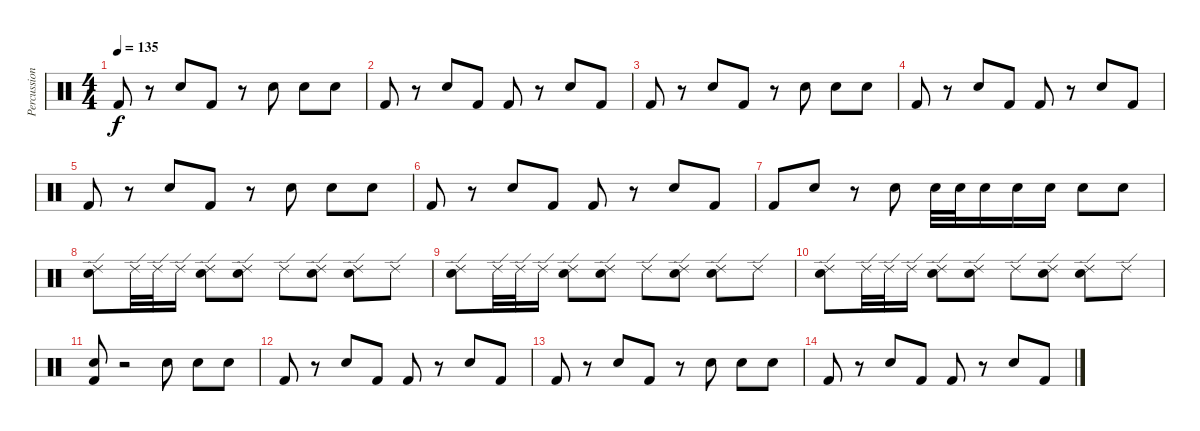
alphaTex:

\track ("Percussions" "Percussion") {instrument percussion}
\staff {score}
\articulation defaults
\ts (4 4)
\tempo 135
\clef neutral
\ks c "Kick (hit) 2".8{dy f}
r.8 "Snare (hit) 2".8 "Kick (hit) 2".8 r.8 "Snare (hit) 2".8 "Snare (hit) 2".8 "Snare (hit) 2".8 |
"Kick (hit) 2".8 r.8 "Snare (hit) 2".8 "Kick (hit) 2".8 "Kick (hit) 2".8 r.8 "Snare (hit) 2".8 "Kick (hit) 2".8 |
"Kick (hit) 2".8 r.8 "Snare (hit) 2".8 "Kick (hit) 2".8 r.8 "Snare (hit) 2".8 "Snare (hit) 2".8 "Snare (hit) 2".8 |
"Kick (hit) 2".8 r.8 "Snare (hit) 2".8 "Kick (hit) 2".8 "Kick (hit) 2".8 r.8 "Snare (hit) 2".8 "Kick (hit) 2".8 |
"Kick (hit) 2".8 r.8 "Snare (hit) 2".8 "Kick (hit) 2".8 r.8 "Snare (hit) 2".8 "Snare (hit) 2".8 "Snare (hit) 2".8 |
"Kick (hit) 2".8 r.8 "Snare (hit) 2".8 "Kick (hit) 2".8 "Kick (hit) 2".8 r.8 "Snare (hit) 2".8 "Kick (hit) 2".8 |
"Kick (hit) 2".8 "Snare (hit) 2".8 r.8 "Snare (hit) 2".8 "Snare (hit) 2".32 "Snare (hit) 2".32 "Snare (hit) 2".16 "Snare (hit) 2".16 "Snare (hit) 2".16 "Snare (hit) 2".8 "Snare (hit) 2".8 |
("Snare (hit) 2" "Ride (edge) 2").8 "Ride (edge) 2".32 "Ride (edge) 2".32 "Ride (edge) 2".16 ("Snare (hit) 2" "Ride (edge) 2").8 ("Snare (hit) 2" "Ride (edge) 2").8 "Ride (edge) 2".8 ("Snare (hit) 2" "Ride (edge) 2").8 ("Snare (hit) 2" "Ride (edge) 2").8 "Ride (edge) 2".8 |
("Snare (hit) 2" "Ride (edge) 2").8 "Ride (edge) 2".32 "Ride (edge) 2".32 "Ride (edge) 2".16 ("Snare (hit) 2" "Ride (edge) 2").8 ("Snare (hit) 2" "Ride (edge) 2").8 "Ride (edge) 2".8 ("Snare (hit) 2" "Ride (edge) 2").8 ("Snare (hit) 2" "Ride (edge) 2").8 "Ride (edge) 2".8 |
("Snare (hit) 2" "Ride (edge) 2").8 "Ride (edge) 2".32 "Ride (edge) 2".32 "Ride (edge) 2".16 ("Snare (hit) 2" "Ride (edge) 2").8 ("Snare (hit) 2" "Ride (edge) 2").8 "Ride (edge) 2".8 ("Snare (hit) 2" "Ride (edge) 2").8 ("Snare (hit) 2" "Ride (edge) 2").8 "Ride (edge) 2".8 |
("Snare (hit) 2" "Kick (hit) 2").8 r.2 "Snare (hit) 2".8 "Snare (hit) 2".8 "Snare (hit) 2".8 |
"Kick (hit) 2".8{volume 10} r.8 "Snare (hit) 2".8 "Kick (hit) 2".8 "Kick (hit) 2".8{volume 8} r.8 "Snare (hit) 2".8 "Kick (hit) 2".8 |
"Kick (hit) 2".8 r.8 "Snare (hit) 2".8{volume 5} "Kick (hit) 2".8 r.8 "Snare (hit) 2".8 "Snare (hit) 2".8{volume 4} "Snare (hit) 2".8 |
"Kick (hit) 2".8 r.8 "Snare (hit) 2".8{volume 2} "Kick (hit) 2".8 "Kick (hit) 2".8 r.8 "Snare (hit) 2".8{volume 0} "Kick (hit) 2".8
